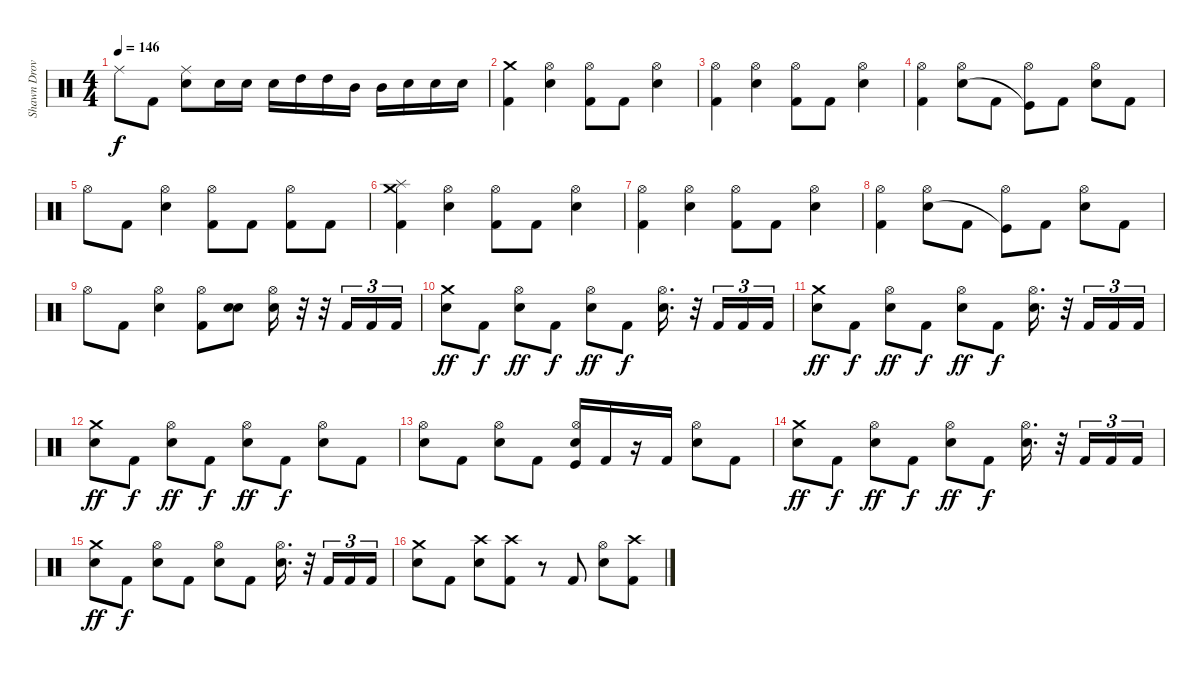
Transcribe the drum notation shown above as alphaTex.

\track ("Shawn Drover" "Shawn Drov") {instrument percussion}
\staff {score}
\articulation defaults
\ts (4 4)
\tempo 146
\clef neutral
\ks c "Ride (middle)".8{dy f} "Kick (hit) 2".8
("Ride (middle)" "Snare (hit) 2").8 "Snare (hit) 2".16 "Snare (hit) 2".16 "Snare (hit) 2".16 "High Tom (hit)".16 "High Tom (hit)".16 "Mid Tom (hit)".16 "Mid Tom (hit)".16 "Snare (hit) 2".16 "Snare (hit) 2".16 "Snare (hit) 2".16 |
("Crash medium (hit)" "Kick (hit) 2").4 ("Hi-Hat (open)" "Snare (hit) 2").4 ("Hi-Hat (open)" "Kick (hit) 2").8 "Kick (hit) 2".8 ("Hi-Hat (open)" "Snare (hit) 2").4 |
("Hi-Hat (open)" "Kick (hit) 2").4 ("Hi-Hat (open)" "Snare (hit) 2").4 ("Hi-Hat (open)" "Kick (hit) 2").8 "Kick (hit) 2".8 ("Hi-Hat (open)" "Snare (hit) 2").4 |
("Hi-Hat (open)" "Kick (hit) 2").4 ("Hi-Hat (open)" "Snare (hit) 2").8 "Kick (hit) 2".8 ("Hi-Hat (open)" "Kick (hit)"{t}).8 "Kick (hit) 2".8 ("Hi-Hat (open)" "Snare (hit) 2").8 "Kick (hit) 2".8 |
"Hi-Hat (open)".8 "Kick (hit) 2".8 ("Hi-Hat (open)" "Snare (hit) 2").4 ("Hi-Hat (open)" "Kick (hit) 2").8 "Kick (hit) 2".8 ("Hi-Hat (open)" "Kick (hit) 2").8 "Kick (hit) 2".8 |
("Crash medium (hit)" "Splash (hit)" "Kick (hit) 2").4 ("Hi-Hat (open)" "Snare (hit) 2").4 ("Hi-Hat (open)" "Kick (hit) 2").8 "Kick (hit) 2".8 ("Hi-Hat (open)" "Snare (hit) 2").4 |
("Hi-Hat (open)" "Kick (hit) 2").4 ("Hi-Hat (open)" "Snare (hit) 2").4 ("Hi-Hat (open)" "Kick (hit) 2").8 "Kick (hit) 2".8 ("Hi-Hat (open)" "Snare (hit) 2").4 |
("Hi-Hat (open)" "Kick (hit) 2").4 ("Hi-Hat (open)" "Snare (hit) 2").8 "Kick (hit) 2".8 ("Hi-Hat (open)" "Kick (hit)"{t}).8 "Kick (hit) 2".8 ("Hi-Hat (open)" "Snare (hit) 2").8 "Kick (hit) 2".8 |
"Hi-Hat (open)".8 "Kick (hit) 2".8 ("Hi-Hat (open)" "Snare (hit) 2").4 ("Hi-Hat (open)" "Kick (hit) 2").8 ("Snare (hit) 2" "Snare (hit) 2").8{bd 60} ("Hi-Hat (open)" "Snare (hit) 2").16{bd 60} r.32 r.32 "Kick (hit) 2".16{tu (3 2)} "Kick (hit) 2".16{tu (3 2)} "Kick (hit) 2".16{tu (3 2)} |
("Crash medium (hit)" "Snare (hit) 2").8{dy ff} "Kick (hit) 2".8{dy f} ("Hi-Hat (open)" "Snare (hit) 2").8{dy ff} "Kick (hit) 2".8{dy f} ("Hi-Hat (open)" "Snare (hit) 2").8{dy ff} "Kick (hit) 2".8{dy f} ("Hi-Hat (open)" "Snare (hit) 2").16{d} r.32 "Kick (hit) 2".16{tu (3 2)} "Kick (hit) 2".16{tu (3 2)} "Kick (hit) 2".16{tu (3 2)} |
("Crash medium (hit)" "Snare (hit) 2").8{dy ff} "Kick (hit) 2".8{dy f} ("Hi-Hat (open)" "Snare (hit) 2").8{dy ff} "Kick (hit) 2".8{dy f} ("Hi-Hat (open)" "Snare (hit) 2").8{dy ff} "Kick (hit) 2".8{dy f} ("Hi-Hat (open)" "Snare (hit) 2").16{d} r.32 "Kick (hit) 2".16{tu (3 2)} "Kick (hit) 2".16{tu (3 2)} "Kick (hit) 2".16{tu (3 2)} |
("Crash medium (hit)" "Snare (hit) 2").8{dy ff} "Kick (hit) 2".8{dy f} ("Hi-Hat (open)" "Snare (hit) 2").8{dy ff} "Kick (hit) 2".8{dy f} ("Hi-Hat (open)" "Snare (hit) 2").8{dy ff} "Kick (hit) 2".8{dy f} ("Hi-Hat (open)" "Snare (hit) 2").8 "Kick (hit) 2".8 |
("Hi-Hat (open)" "Snare (hit) 2").8 "Kick (hit) 2".8 ("Hi-Hat (open)" "Snare (hit) 2").8 "Kick (hit) 2".8 ("Hi-Hat (open)" "Snare (hit) 2" "Kick (hit)").16 "Kick (hit) 2".16 r.16 "Kick (hit) 2".16 ("Hi-Hat (open)" "Snare (hit) 2").8 "Kick (hit) 2".8 |
("Crash medium (hit)" "Snare (hit) 2").8{dy ff} "Kick (hit) 2".8{dy f} ("Hi-Hat (open)" "Snare (hit) 2").8{dy ff} "Kick (hit) 2".8{dy f} ("Hi-Hat (open)" "Snare (hit) 2").8{dy ff} "Kick (hit) 2".8{dy f} ("Hi-Hat (open)" "Snare (hit) 2").16{d} r.32 "Kick (hit) 2".16{tu (3 2)} "Kick (hit) 2".16{tu (3 2)} "Kick (hit) 2".16{tu (3 2)} |
("Crash medium (hit)" "Snare (hit) 2").8{dy ff} "Kick (hit) 2".8{dy f} ("Hi-Hat (open)" "Snare (hit) 2").8 "Kick (hit) 2".8 ("Hi-Hat (open)" "Snare (hit) 2").8 "Kick (hit) 2".8 ("Hi-Hat (open)" "Snare (hit) 2").16{d} r.32 "Kick (hit) 2".16{tu (3 2)} "Kick (hit) 2".16{tu (3 2)} "Kick (hit) 2".16{tu (3 2)} |
("Crash medium (hit)" "Snare (hit) 2").8 "Kick (hit) 2".8 ("Crash high (hit)" "Snare (hit) 2").8 ("Crash high (hit)" "Kick (hit) 2").8 r.8 "Kick (hit) 2".8 ("Hi-Hat (open)" "Snare (hit) 2").8 ("Crash high (hit)" "Kick (hit) 2").8
